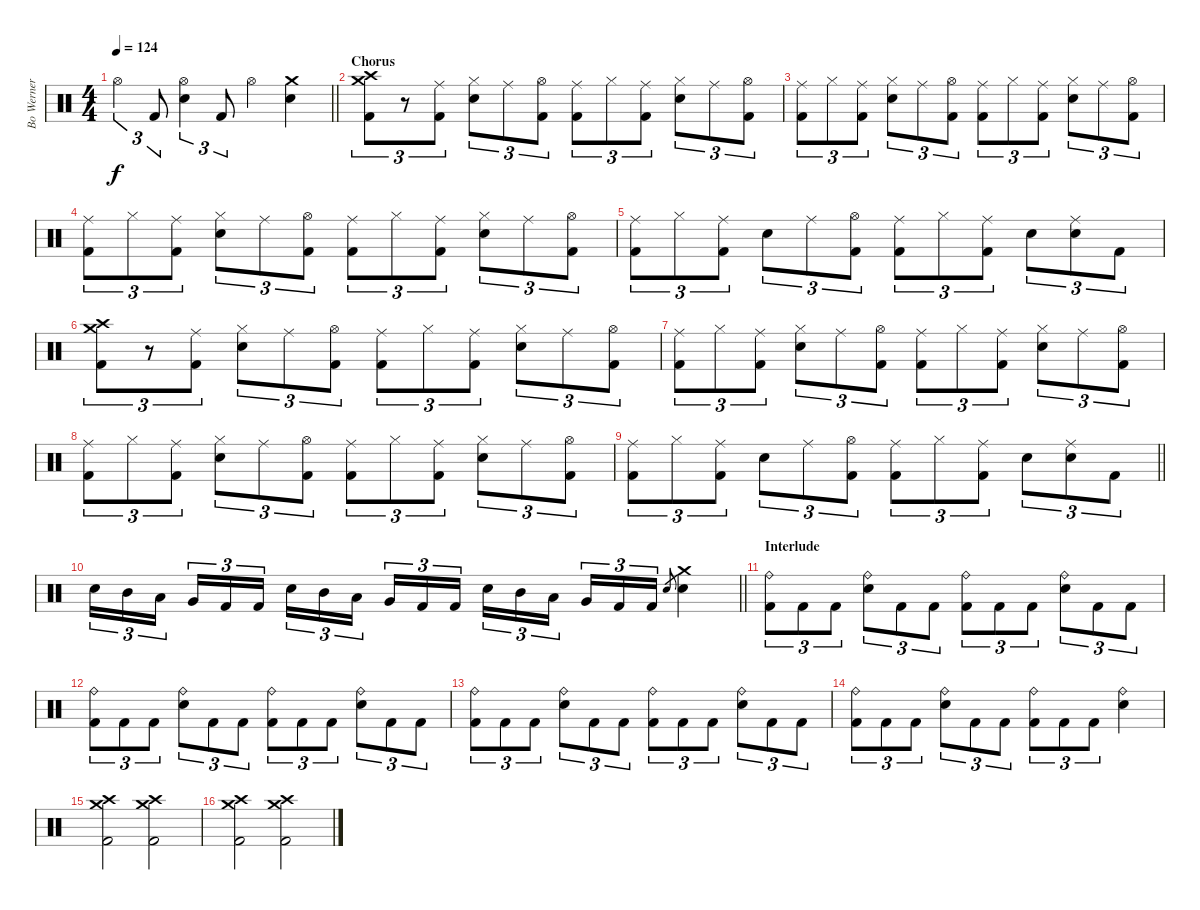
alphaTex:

\track ("Bo Werner " "Bo Werner ") {instrument percussion}
\staff {score}
\articulation defaults
\ts (4 4)
\tempo 124
\clef neutral
\barLineRight lightlight
\ks c "Hi-Hat (open)".4{tu (3 2) dy f} "Kick (hit) 2".8{tu (3 2)}
("Hi-Hat (open)" "Snare (hit) 2").4{tu (3 2)} "Kick (hit) 2".8{tu (3 2)} "Hi-Hat (open)".4 ("Crash medium (hit)" "Snare (hit) 2").4 |
\section ("" "Chorus")
("Crash medium (hit)" "Crash high (hit)" "Kick (hit) 2").8{tu (3 2)} r.8{tu (3 2)} ("Ride (middle)" "Kick (hit) 2").8{tu (3 2)} ("Hi-Hat (closed)" "Electric Snare (hit)").8{tu (3 2)} "Ride (middle)".8{tu (3 2)} ("Hi-Hat (open)" "Kick (hit) 2").8{tu (3 2)} ("Ride (middle)" "Kick (hit) 2").8{tu (3 2)} "Hi-Hat (closed)".8{tu (3 2)} ("Ride (middle)" "Kick (hit) 2").8{tu (3 2)} ("Hi-Hat (closed)" "Electric Snare (hit)").8{tu (3 2)} "Ride (middle)".8{tu (3 2)} ("Hi-Hat (open)" "Kick (hit) 2").8{tu (3 2)} |
("Ride (middle)" "Kick (hit) 2").8{tu (3 2)} "Hi-Hat (closed)".8{tu (3 2)} ("Ride (middle)" "Kick (hit) 2").8{tu (3 2)} ("Hi-Hat (closed)" "Electric Snare (hit)").8{tu (3 2)} "Ride (middle)".8{tu (3 2)} ("Hi-Hat (open)" "Kick (hit) 2").8{tu (3 2)} ("Ride (middle)" "Kick (hit) 2").8{tu (3 2)} "Hi-Hat (closed)".8{tu (3 2)} ("Ride (middle)" "Kick (hit) 2").8{tu (3 2)} ("Hi-Hat (closed)" "Electric Snare (hit)").8{tu (3 2)} "Ride (middle)".8{tu (3 2)} ("Hi-Hat (open)" "Kick (hit) 2").8{tu (3 2)} |
("Ride (middle)" "Kick (hit) 2").8{tu (3 2)} "Hi-Hat (closed)".8{tu (3 2)} ("Ride (middle)" "Kick (hit) 2").8{tu (3 2)} ("Hi-Hat (closed)" "Electric Snare (hit)").8{tu (3 2)} "Ride (middle)".8{tu (3 2)} ("Hi-Hat (open)" "Kick (hit) 2").8{tu (3 2)} ("Ride (middle)" "Kick (hit) 2").8{tu (3 2)} "Hi-Hat (closed)".8{tu (3 2)} ("Ride (middle)" "Kick (hit) 2").8{tu (3 2)} ("Hi-Hat (closed)" "Electric Snare (hit)").8{tu (3 2)} "Ride (middle)".8{tu (3 2)} ("Hi-Hat (open)" "Kick (hit) 2").8{tu (3 2)} |
("Ride (middle)" "Kick (hit) 2").8{tu (3 2)} "Hi-Hat (closed)".8{tu (3 2)} ("Ride (middle)" "Kick (hit) 2").8{tu (3 2)} "Electric Snare (hit)".8{tu (3 2)} "Ride (middle)".8{tu (3 2)} ("Hi-Hat (open)" "Kick (hit) 2").8{tu (3 2)} ("Ride (middle)" "Kick (hit) 2").8{tu (3 2)} "Hi-Hat (closed)".8{tu (3 2)} ("Ride (middle)" "Kick (hit) 2").8{tu (3 2)} "Electric Snare (hit)".8{tu (3 2)} ("Ride (middle)" "Electric Snare (hit)").8{tu (3 2)} "Kick (hit) 2".8{tu (3 2)} |
("Crash medium (hit)" "Crash high (hit)" "Kick (hit) 2").8{tu (3 2)} r.8{tu (3 2)} ("Ride (middle)" "Kick (hit) 2").8{tu (3 2)} ("Hi-Hat (closed)" "Electric Snare (hit)").8{tu (3 2)} "Ride (middle)".8{tu (3 2)} ("Hi-Hat (open)" "Kick (hit) 2").8{tu (3 2)} ("Ride (middle)" "Kick (hit) 2").8{tu (3 2)} "Hi-Hat (closed)".8{tu (3 2)} ("Ride (middle)" "Kick (hit) 2").8{tu (3 2)} ("Hi-Hat (closed)" "Electric Snare (hit)").8{tu (3 2)} "Ride (middle)".8{tu (3 2)} ("Hi-Hat (open)" "Kick (hit) 2").8{tu (3 2)} |
("Ride (middle)" "Kick (hit) 2").8{tu (3 2)} "Hi-Hat (closed)".8{tu (3 2)} ("Ride (middle)" "Kick (hit) 2").8{tu (3 2)} ("Hi-Hat (closed)" "Electric Snare (hit)").8{tu (3 2)} "Ride (middle)".8{tu (3 2)} ("Hi-Hat (open)" "Kick (hit) 2").8{tu (3 2)} ("Ride (middle)" "Kick (hit) 2").8{tu (3 2)} "Hi-Hat (closed)".8{tu (3 2)} ("Ride (middle)" "Kick (hit) 2").8{tu (3 2)} ("Hi-Hat (closed)" "Electric Snare (hit)").8{tu (3 2)} "Ride (middle)".8{tu (3 2)} ("Hi-Hat (open)" "Kick (hit) 2").8{tu (3 2)} |
("Ride (middle)" "Kick (hit) 2").8{tu (3 2)} "Hi-Hat (closed)".8{tu (3 2)} ("Ride (middle)" "Kick (hit) 2").8{tu (3 2)} ("Hi-Hat (closed)" "Electric Snare (hit)").8{tu (3 2)} "Ride (middle)".8{tu (3 2)} ("Hi-Hat (open)" "Kick (hit) 2").8{tu (3 2)} ("Ride (middle)" "Kick (hit) 2").8{tu (3 2)} "Hi-Hat (closed)".8{tu (3 2)} ("Ride (middle)" "Kick (hit) 2").8{tu (3 2)} ("Hi-Hat (closed)" "Electric Snare (hit)").8{tu (3 2)} "Ride (middle)".8{tu (3 2)} ("Hi-Hat (open)" "Kick (hit) 2").8{tu (3 2)} |
\barLineRight lightlight
("Ride (middle)" "Kick (hit) 2").8{tu (3 2)} "Hi-Hat (closed)".8{tu (3 2)} ("Ride (middle)" "Kick (hit) 2").8{tu (3 2)} "Electric Snare (hit)".8{tu (3 2)} "Ride (middle)".8{tu (3 2)} ("Hi-Hat (open)" "Kick (hit) 2").8{tu (3 2)} ("Ride (middle)" "Kick (hit) 2").8{tu (3 2)} "Hi-Hat (closed)".8{tu (3 2)} ("Ride (middle)" "Kick (hit) 2").8{tu (3 2)} "Electric Snare (hit)".8{tu (3 2)} ("Ride (middle)" "Electric Snare (hit)").8{tu (3 2)} "Kick (hit) 2".8{tu (3 2)} |
\barLineRight lightlight "Snare (hit) 2".16{tu (3 2)} "Mid Tom (hit)".16{tu (3 2)} "Low Tom (hit)".16{tu (3 2) beam splitsecondary} "Very Low Tom (hit)".16{tu (3 2)} "Kick (hit) 2".16{tu (3 2)} "Kick (hit) 2".16{tu (3 2)} "Snare (hit) 2".16{tu (3 2)} "Mid Tom (hit)".16{tu (3 2)} "Low Tom (hit)".16{tu (3 2) beam splitsecondary} "Very Low Tom (hit)".16{tu (3 2)} "Kick (hit) 2".16{tu (3 2)} "Kick (hit) 2".16{tu (3 2)} "Snare (hit) 2".16{tu (3 2)} "Mid Tom (hit)".16{tu (3 2)} "Low Tom (hit)".16{tu (3 2) beam splitsecondary} "Very Low Tom (hit)".16{tu (3 2)} "Kick (hit) 2".16{tu (3 2)} "Kick (hit) 2".16{tu (3 2)} "Snare (hit) 2".8{gr}
("Crash medium (hit)" "Snare (hit) 2").4 |
\section ("" "Interlude")
("Ride (bell)" "Kick (hit) 2").8{tu (3 2)} "Kick (hit) 2".8{tu (3 2)} "Kick (hit) 2".8{tu (3 2)} ("Ride (bell)" "Snare (hit) 2").8{tu (3 2)} "Kick (hit) 2".8{tu (3 2)} "Kick (hit) 2".8{tu (3 2)} ("Ride (bell)" "Kick (hit) 2").8{tu (3 2)} "Kick (hit) 2".8{tu (3 2)} "Kick (hit) 2".8{tu (3 2)} ("Ride (bell)" "Snare (hit) 2").8{tu (3 2)} "Kick (hit) 2".8{tu (3 2)} "Kick (hit) 2".8{tu (3 2)} |
("Ride (bell)" "Kick (hit) 2").8{tu (3 2)} "Kick (hit) 2".8{tu (3 2)} "Kick (hit) 2".8{tu (3 2)} ("Ride (bell)" "Snare (hit) 2").8{tu (3 2)} "Kick (hit) 2".8{tu (3 2)} "Kick (hit) 2".8{tu (3 2)} ("Ride (bell)" "Kick (hit) 2").8{tu (3 2)} "Kick (hit) 2".8{tu (3 2)} "Kick (hit) 2".8{tu (3 2)} ("Ride (bell)" "Snare (hit) 2").8{tu (3 2)} "Kick (hit) 2".8{tu (3 2)} "Kick (hit) 2".8{tu (3 2)} |
("Ride (bell)" "Kick (hit) 2").8{tu (3 2)} "Kick (hit) 2".8{tu (3 2)} "Kick (hit) 2".8{tu (3 2)} ("Ride (bell)" "Snare (hit) 2").8{tu (3 2)} "Kick (hit) 2".8{tu (3 2)} "Kick (hit) 2".8{tu (3 2)} ("Ride (bell)" "Kick (hit) 2").8{tu (3 2)} "Kick (hit) 2".8{tu (3 2)} "Kick (hit) 2".8{tu (3 2)} ("Ride (bell)" "Snare (hit) 2").8{tu (3 2)} "Kick (hit) 2".8{tu (3 2)} "Kick (hit) 2".8{tu (3 2)} |
("Ride (bell)" "Kick (hit) 2").8{tu (3 2)} "Kick (hit) 2".8{tu (3 2)} "Kick (hit) 2".8{tu (3 2)} ("Ride (bell)" "Snare (hit) 2").8{tu (3 2)} "Kick (hit) 2".8{tu (3 2)} "Kick (hit) 2".8{tu (3 2)} ("Ride (bell)" "Kick (hit) 2").8{tu (3 2)} "Kick (hit) 2".8{tu (3 2)} "Kick (hit) 2".8{tu (3 2)} ("Ride (bell)" "Snare (hit) 2").4 |
("Crash medium (hit)" "Crash high (hit)" "Kick (hit) 2").2 ("Crash high (hit)" "Crash medium (hit)" "Kick (hit) 2").2 |
("Crash medium (hit)" "Crash high (hit)" "Kick (hit) 2").2 ("Crash high (hit)" "Crash medium (hit)" "Kick (hit) 2").2
